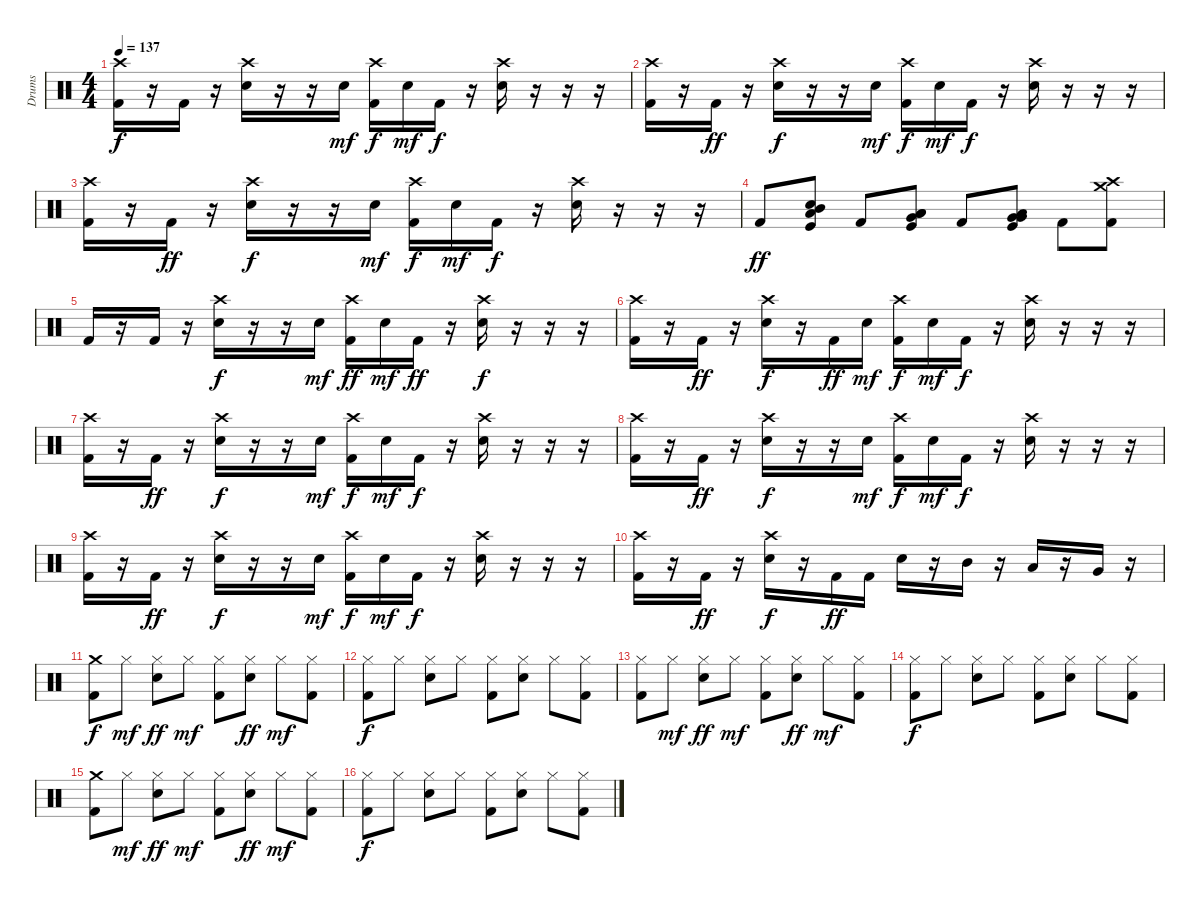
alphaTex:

\track ("Drums" "Drums") {instrument percussion}
\staff {score}
\articulation defaults
\ts (4 4)
\tempo 137
\clef neutral
\ks c
("Crash high (hit)" "Kick (hit) 2").16{dy f} r.16 "Kick (hit) 2".16 r.16 ("Crash high (hit)" "Electric Snare (hit)").16 r.16 r.16 "Electric Snare (hit)".16{dy mf} ("Crash high (hit)" "Kick (hit) 2").16{dy f} "Electric Snare (hit)".16{dy mf} "Kick (hit) 2".16{dy f} r.16 ("Crash high (hit)" "Electric Snare (hit)").16 r.16 r.16 r.16 |
("Crash high (hit)" "Kick (hit) 2").16 r.16 "Kick (hit) 2".16{dy ff} r.16 ("Crash high (hit)" "Electric Snare (hit)").16{dy f} r.16 r.16 "Electric Snare (hit)".16{dy mf} ("Crash high (hit)" "Kick (hit) 2").16{dy f} "Electric Snare (hit)".16{dy mf} "Kick (hit) 2".16{dy f} r.16 ("Crash high (hit)" "Electric Snare (hit)").16 r.16 r.16 r.16 |
("Crash high (hit)" "Kick (hit) 2").16 r.16 "Kick (hit) 2".16{dy ff} r.16 ("Crash high (hit)" "Electric Snare (hit)").16{dy f} r.16 r.16 "Electric Snare (hit)".16{dy mf} ("Crash high (hit)" "Kick (hit) 2").16{dy f} "Electric Snare (hit)".16{dy mf} "Kick (hit) 2".16{dy f} r.16 ("Crash high (hit)" "Electric Snare (hit)").16 r.16 r.16 r.16 |
"Kick (hit) 2".8{dy ff} ("Snare (hit) 2" "Mid Tom (hit)" "Low Tom (hit)" "Kick (hit)").8 "Kick (hit) 2".8 ("Low Tom (hit)" "Low Tom (hit)" "Very Low Tom (hit)" "Kick (hit)").8 "Kick (hit) 2".8 ("Low Tom (hit)" "Very Low Tom (hit)" "Very Low Tom (hit)" "Kick (hit)").8 "Kick (hit) 2".8 ("Crash high (hit)" "Crash medium (hit)" "Kick (hit) 2").8 |
"Kick (hit) 2".16 r.16 "Kick (hit) 2".16 r.16 ("Crash high (hit)" "Electric Snare (hit)").16{dy f} r.16 r.16 "Electric Snare (hit)".16{dy mf} ("Crash high (hit)" "Kick (hit) 2").16{dy ff} "Electric Snare (hit)".16{dy mf} "Kick (hit) 2".16{dy ff} r.16 ("Crash high (hit)" "Electric Snare (hit)").16{dy f} r.16 r.16 r.16 |
("Crash high (hit)" "Kick (hit) 2").16 r.16 "Kick (hit) 2".16{dy ff} r.16 ("Crash high (hit)" "Electric Snare (hit)").16{dy f} r.16 "Kick (hit) 2".16{dy ff} "Electric Snare (hit)".16{dy mf} ("Crash high (hit)" "Kick (hit) 2").16{dy f} "Electric Snare (hit)".16{dy mf} "Kick (hit) 2".16{dy f} r.16 ("Crash high (hit)" "Electric Snare (hit)").16 r.16 r.16 r.16 |
("Crash high (hit)" "Kick (hit) 2").16 r.16 "Kick (hit) 2".16{dy ff} r.16 ("Crash high (hit)" "Electric Snare (hit)").16{dy f} r.16 r.16 "Electric Snare (hit)".16{dy mf} ("Crash high (hit)" "Kick (hit) 2").16{dy f} "Electric Snare (hit)".16{dy mf} "Kick (hit) 2".16{dy f} r.16 ("Crash high (hit)" "Electric Snare (hit)").16 r.16 r.16 r.16 |
("Crash high (hit)" "Kick (hit) 2").16 r.16 "Kick (hit) 2".16{dy ff} r.16 ("Crash high (hit)" "Electric Snare (hit)").16{dy f} r.16 r.16 "Electric Snare (hit)".16{dy mf} ("Crash high (hit)" "Kick (hit) 2").16{dy f} "Electric Snare (hit)".16{dy mf} "Kick (hit) 2".16{dy f} r.16 ("Crash high (hit)" "Electric Snare (hit)").16 r.16 r.16 r.16 |
("Crash high (hit)" "Kick (hit) 2").16 r.16 "Kick (hit) 2".16{dy ff} r.16 ("Crash high (hit)" "Electric Snare (hit)").16{dy f} r.16 r.16 "Electric Snare (hit)".16{dy mf} ("Crash high (hit)" "Kick (hit) 2").16{dy f} "Electric Snare (hit)".16{dy mf} "Kick (hit) 2".16{dy f} r.16 ("Crash high (hit)" "Electric Snare (hit)").16 r.16 r.16 r.16 |
("Crash high (hit)" "Kick (hit) 2").16 r.16 "Kick (hit) 2".16{dy ff} r.16 ("Crash high (hit)" "Electric Snare (hit)").16{dy f} r.16 "Kick (hit) 2".16{dy ff} "Kick (hit) 2".16 "Electric Snare (hit)".16 r.16 "Mid Tom (hit)".16 r.16 "Low Tom (hit)".16 r.16 "Very Low Tom (hit)".16 r.16 |
("Crash medium (hit)" "Kick (hit) 2").8{dy f} "Hi-Hat (closed)".8{dy mf} ("Hi-Hat (closed)" "Electric Snare (hit)").8{dy ff} "Hi-Hat (closed)".8{dy mf} ("Hi-Hat (closed)" "Kick (hit) 2").8 ("Hi-Hat (closed)" "Electric Snare (hit)").8{dy ff} "Hi-Hat (closed)".8{dy mf} ("Hi-Hat (closed)" "Kick (hit) 2").8 |
("Hi-Hat (closed)" "Kick (hit) 2").8{dy f} "Hi-Hat (closed)".8 ("Hi-Hat (closed)" "Electric Snare (hit)").8 "Hi-Hat (closed)".8 ("Hi-Hat (closed)" "Kick (hit) 2").8 ("Hi-Hat (closed)" "Electric Snare (hit)").8 "Hi-Hat (closed)".8 ("Hi-Hat (closed)" "Kick (hit) 2").8 |
("Hi-Hat (closed)" "Kick (hit) 2").8 "Hi-Hat (closed)".8{dy mf} ("Hi-Hat (closed)" "Electric Snare (hit)").8{dy ff} "Hi-Hat (closed)".8{dy mf} ("Hi-Hat (closed)" "Kick (hit) 2").8 ("Hi-Hat (closed)" "Electric Snare (hit)").8{dy ff} "Hi-Hat (closed)".8{dy mf} ("Hi-Hat (closed)" "Kick (hit) 2").8 |
("Hi-Hat (closed)" "Kick (hit) 2").8{dy f} "Hi-Hat (closed)".8 ("Hi-Hat (closed)" "Electric Snare (hit)").8 "Hi-Hat (closed)".8 ("Hi-Hat (closed)" "Kick (hit) 2").8 ("Hi-Hat (closed)" "Electric Snare (hit)").8 "Hi-Hat (closed)".8 ("Hi-Hat (closed)" "Kick (hit) 2").8 |
("Crash medium (hit)" "Kick (hit) 2").8 "Hi-Hat (closed)".8{dy mf} ("Hi-Hat (closed)" "Electric Snare (hit)").8{dy ff} "Hi-Hat (closed)".8{dy mf} ("Hi-Hat (closed)" "Kick (hit) 2").8 ("Hi-Hat (closed)" "Electric Snare (hit)").8{dy ff} "Hi-Hat (closed)".8{dy mf} ("Hi-Hat (closed)" "Kick (hit) 2").8 |
("Hi-Hat (closed)" "Kick (hit) 2").8{dy f} "Hi-Hat (closed)".8 ("Hi-Hat (closed)" "Electric Snare (hit)").8 "Hi-Hat (closed)".8 ("Hi-Hat (closed)" "Kick (hit) 2").8 ("Hi-Hat (closed)" "Electric Snare (hit)").8 "Hi-Hat (closed)".8 ("Hi-Hat (closed)" "Kick (hit) 2").8
